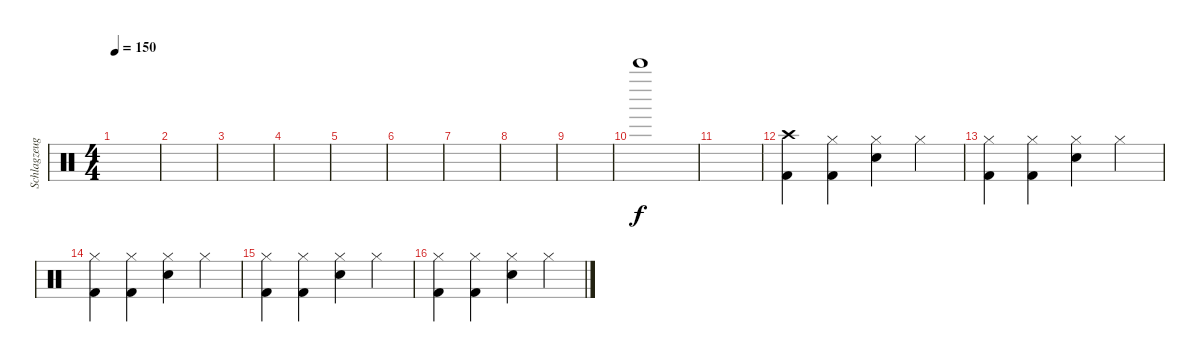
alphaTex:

\track ("Schlagzeug" "Schlagzeug") {instrument percussion}
\staff {score}
\articulation defaults
\ts (4 4)
\tempo 150
\clef neutral
\ks c
|
|
|
|
|
|
|
|
|
"Bell Tree (hit)".1 |
|
("Crash high (hit)" "Kick (hit) 2").4 ("Hi-Hat (closed)" "Kick (hit) 2").4 ("Hi-Hat (closed)" "Snare (hit) 2").4 "Hi-Hat (closed)".4 |
("Hi-Hat (closed)" "Kick (hit) 2").4 ("Hi-Hat (closed)" "Kick (hit) 2").4 ("Hi-Hat (closed)" "Snare (hit) 2").4 "Hi-Hat (closed)".4 |
("Hi-Hat (closed)" "Kick (hit) 2").4 ("Hi-Hat (closed)" "Kick (hit) 2").4 ("Hi-Hat (closed)" "Snare (hit) 2").4 "Hi-Hat (closed)".4 |
("Hi-Hat (closed)" "Kick (hit) 2").4 ("Hi-Hat (closed)" "Kick (hit) 2").4 ("Hi-Hat (closed)" "Snare (hit) 2").4 "Hi-Hat (closed)".4 |
("Hi-Hat (closed)" "Kick (hit) 2").4 ("Hi-Hat (closed)" "Kick (hit) 2").4 ("Hi-Hat (closed)" "Snare (hit) 2").4 "Hi-Hat (closed)".4
